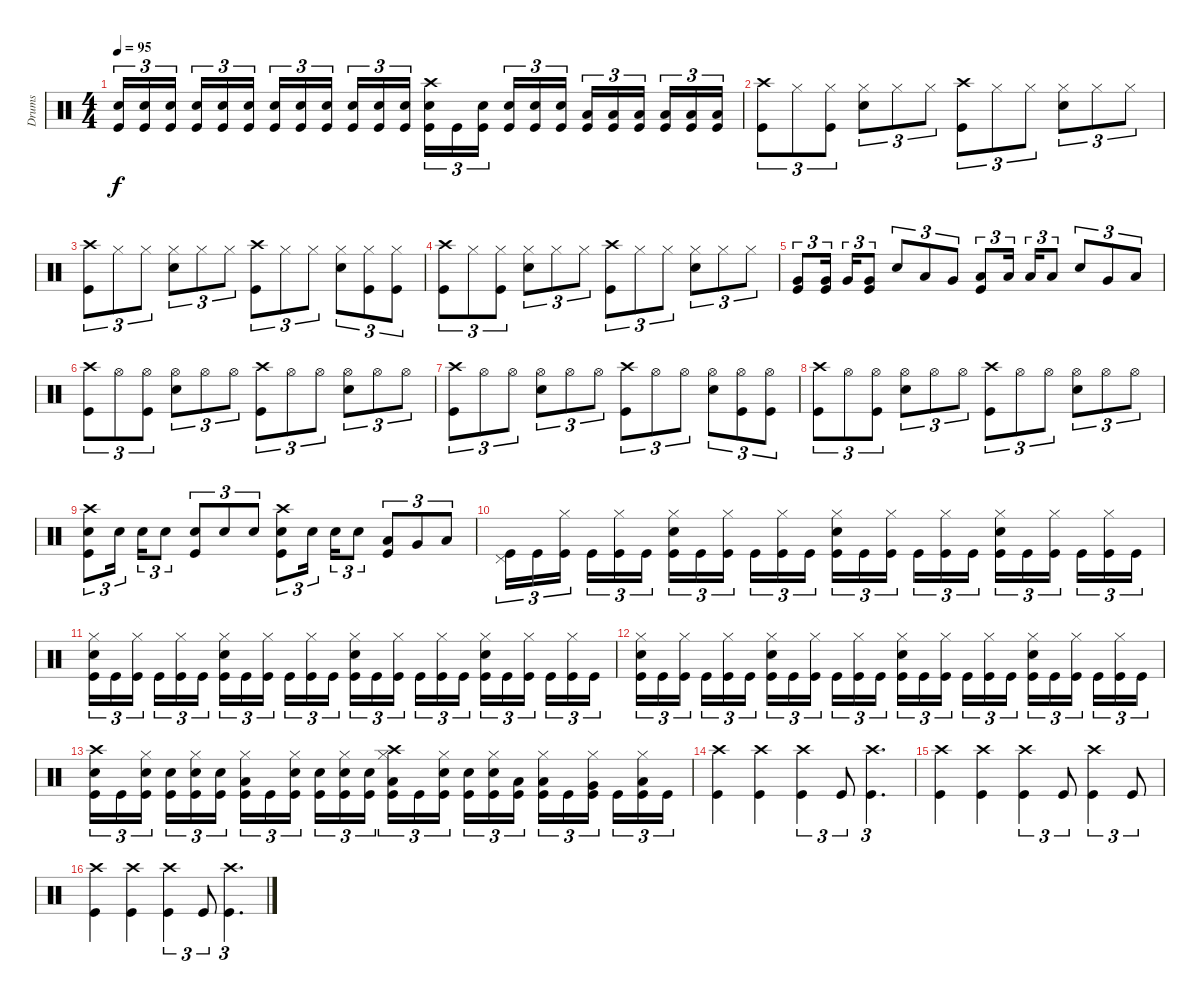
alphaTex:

\track ("Drums" "Drums") {instrument percussion}
\staff {score}
\articulation defaults
\ts (4 4)
\tempo 95
\clef neutral
\ks c
("Electric Snare (hit)" "Kick (hit)").16{tu (3 2) dy f} ("Electric Snare (hit)" "Kick (hit)").16{tu (3 2)} ("Electric Snare (hit)" "Kick (hit)").16{tu (3 2)} ("Electric Snare (hit)" "Kick (hit)").16{tu (3 2)} ("Electric Snare (hit)" "Kick (hit)").16{tu (3 2)} ("Electric Snare (hit)" "Kick (hit)").16{tu (3 2)} ("Electric Snare (hit)" "Kick (hit)").16{tu (3 2)} ("Electric Snare (hit)" "Kick (hit)").16{tu (3 2)} ("Electric Snare (hit)" "Kick (hit)").16{tu (3 2)} ("Electric Snare (hit)" "Kick (hit)").16{tu (3 2)} ("Electric Snare (hit)" "Kick (hit)").16{tu (3 2)} ("Electric Snare (hit)" "Kick (hit)").16{tu (3 2)} ("Crash high (hit)" "Electric Snare (hit)" "Kick (hit)").16{tu (3 2)} "Kick (hit)".16{tu (3 2)} ("Electric Snare (hit)" "Kick (hit)").16{tu (3 2)} ("Electric Snare (hit)" "Kick (hit)").16{tu (3 2)} ("Electric Snare (hit)" "Kick (hit)").16{tu (3 2)} ("Electric Snare (hit)" "Kick (hit)").16{tu (3 2)} ("Low Tom (hit)" "Kick (hit)").16{tu (3 2)} ("Low Tom (hit)" "Kick (hit)").16{tu (3 2)} ("Low Tom (hit)" "Kick (hit)").16{tu (3 2)} ("Low Tom (hit)" "Kick (hit)").16{tu (3 2)} ("Low Floor Tom (hit)" "Kick (hit)").16{tu (3 2)} ("Low Floor Tom (hit)" "Kick (hit)").16{tu (3 2)} |
("Crash high (hit)" "Kick (hit)").8{tu (3 2)} "Hi-Hat (closed)".8{tu (3 2)} ("Hi-Hat (closed)" "Kick (hit)").8{tu (3 2)} ("Hi-Hat (closed)" "Electric Snare (hit)").8{tu (3 2)} "Hi-Hat (closed)".8{tu (3 2)} "Hi-Hat (closed)".8{tu (3 2)} ("Crash high (hit)" "Kick (hit)").8{tu (3 2)} "Hi-Hat (closed)".8{tu (3 2)} "Hi-Hat (closed)".8{tu (3 2)} ("Hi-Hat (closed)" "Electric Snare (hit)").8{tu (3 2)} "Hi-Hat (closed)".8{tu (3 2)} "Hi-Hat (closed)".8{tu (3 2)} |
("Crash high (hit)" "Kick (hit)").8{tu (3 2)} "Hi-Hat (closed)".8{tu (3 2)} "Hi-Hat (closed)".8{tu (3 2)} ("Hi-Hat (closed)" "Electric Snare (hit)").8{tu (3 2)} "Hi-Hat (closed)".8{tu (3 2)} "Hi-Hat (closed)".8{tu (3 2)} ("Crash high (hit)" "Kick (hit)").8{tu (3 2)} "Hi-Hat (closed)".8{tu (3 2)} "Hi-Hat (closed)".8{tu (3 2)} ("Hi-Hat (closed)" "Electric Snare (hit)").8{tu (3 2)} ("Hi-Hat (closed)" "Kick (hit)").8{tu (3 2)} ("Hi-Hat (closed)" "Kick (hit)").8{tu (3 2)} |
("Crash high (hit)" "Kick (hit)").8{tu (3 2)} "Hi-Hat (closed)".8{tu (3 2)} ("Hi-Hat (closed)" "Kick (hit)").8{tu (3 2)} ("Hi-Hat (closed)" "Electric Snare (hit)").8{tu (3 2)} "Hi-Hat (closed)".8{tu (3 2)} "Hi-Hat (closed)".8{tu (3 2)} ("Crash high (hit)" "Kick (hit)").8{tu (3 2)} "Hi-Hat (closed)".8{tu (3 2)} "Hi-Hat (closed)".8{tu (3 2)} ("Hi-Hat (closed)" "Electric Snare (hit)").8{tu (3 2)} "Hi-Hat (closed)".8{tu (3 2)} "Hi-Hat (closed)".8{tu (3 2)} |
("Very Low Tom (hit)" "Kick (hit)").8{tu (3 2)} ("Very Low Tom (hit)" "Kick (hit)").16{tu (3 2)} "Very Low Tom (hit)".16{tu (3 2)} ("Very Low Tom (hit)" "Kick (hit)").8{tu (3 2)} "Electric Snare (hit)".8{tu (3 2)} "Low Floor Tom (hit)".8{tu (3 2)} "Very Low Tom (hit)".8{tu (3 2)} ("Low Floor Tom (hit)" "Kick (hit)").8{tu (3 2)} "Low Floor Tom (hit)".16{tu (3 2)} "Low Floor Tom (hit)".16{tu (3 2)} "Low Floor Tom (hit)".8{tu (3 2)} "Electric Snare (hit)".8{tu (3 2)} "Very Low Tom (hit)".8{tu (3 2)} "Low Floor Tom (hit)".8{tu (3 2)} |
("Crash high (hit)" "Kick (hit)").8{tu (3 2)} "Hi-Hat (open)".8{tu (3 2)} ("Hi-Hat (open)" "Kick (hit)").8{tu (3 2)} ("Hi-Hat (open)" "Electric Snare (hit)").8{tu (3 2)} "Hi-Hat (open)".8{tu (3 2)} "Hi-Hat (open)".8{tu (3 2)} ("Crash high (hit)" "Kick (hit)").8{tu (3 2)} "Hi-Hat (open)".8{tu (3 2)} "Hi-Hat (open)".8{tu (3 2)} ("Hi-Hat (open)" "Electric Snare (hit)").8{tu (3 2)} "Hi-Hat (open)".8{tu (3 2)} "Hi-Hat (open)".8{tu (3 2)} |
("Crash high (hit)" "Kick (hit)").8{tu (3 2)} "Hi-Hat (open)".8{tu (3 2)} "Hi-Hat (open)".8{tu (3 2)} ("Hi-Hat (open)" "Electric Snare (hit)").8{tu (3 2)} "Hi-Hat (open)".8{tu (3 2)} "Hi-Hat (open)".8{tu (3 2)} ("Crash high (hit)" "Kick (hit)").8{tu (3 2)} "Hi-Hat (open)".8{tu (3 2)} "Hi-Hat (open)".8{tu (3 2)} ("Hi-Hat (open)" "Electric Snare (hit)").8{tu (3 2)} ("Hi-Hat (open)" "Kick (hit)").8{tu (3 2)} ("Hi-Hat (open)" "Kick (hit)").8{tu (3 2)} |
("Crash high (hit)" "Kick (hit)").8{tu (3 2)} "Hi-Hat (open)".8{tu (3 2)} ("Hi-Hat (open)" "Kick (hit)").8{tu (3 2)} ("Hi-Hat (open)" "Electric Snare (hit)").8{tu (3 2)} "Hi-Hat (open)".8{tu (3 2)} "Hi-Hat (open)".8{tu (3 2)} ("Crash high (hit)" "Kick (hit)").8{tu (3 2)} "Hi-Hat (open)".8{tu (3 2)} "Hi-Hat (open)".8{tu (3 2)} ("Hi-Hat (open)" "Electric Snare (hit)").8{tu (3 2)} "Hi-Hat (open)".8{tu (3 2)} "Hi-Hat (open)".8{tu (3 2)} |
("Crash high (hit)" "Electric Snare (hit)" "Kick (hit)").8{tu (3 2)} "Electric Snare (hit)".16{tu (3 2)} "Electric Snare (hit)".16{tu (3 2)} "Electric Snare (hit)".8{tu (3 2)} ("Electric Snare (hit)" "Kick (hit)").8{tu (3 2)} "Electric Snare (hit)".8{tu (3 2)} "Electric Snare (hit)".8{tu (3 2)} ("Crash high (hit)" "Electric Snare (hit)" "Kick (hit)").8{tu (3 2)} "Electric Snare (hit)".16{tu (3 2)} "Electric Snare (hit)".16{tu (3 2)} "Electric Snare (hit)".8{tu (3 2)} ("Low Tom (hit)" "Kick (hit)").8{tu (3 2)} "Very Low Tom (hit)".8{tu (3 2)} "Low Floor Tom (hit)".8{tu (3 2)} |
("Pedal Hi-Hat (hit)" "Kick (hit)").16{tu (3 2)} "Kick (hit)".16{tu (3 2)} ("Hi-Hat (closed)" "Kick (hit)").16{tu (3 2)} "Kick (hit)".16{tu (3 2)} ("Hi-Hat (closed)" "Kick (hit)").16{tu (3 2)} "Kick (hit)".16{tu (3 2)} ("Hi-Hat (closed)" "Electric Snare (hit)" "Kick (hit)").16{tu (3 2)} "Kick (hit)".16{tu (3 2)} ("Hi-Hat (closed)" "Kick (hit)").16{tu (3 2)} "Kick (hit)".16{tu (3 2)} ("Hi-Hat (closed)" "Kick (hit)").16{tu (3 2)} "Kick (hit)".16{tu (3 2)} ("Hi-Hat (closed)" "Electric Snare (hit)" "Kick (hit)").16{tu (3 2)} "Kick (hit)".16{tu (3 2)} ("Hi-Hat (closed)" "Kick (hit)").16{tu (3 2)} "Kick (hit)".16{tu (3 2)} ("Hi-Hat (closed)" "Kick (hit)").16{tu (3 2)} "Kick (hit)".16{tu (3 2)} ("Hi-Hat (closed)" "Electric Snare (hit)" "Kick (hit)").16{tu (3 2)} "Kick (hit)".16{tu (3 2)} ("Hi-Hat (closed)" "Kick (hit)").16{tu (3 2)} "Kick (hit)".16{tu (3 2)} ("Hi-Hat (closed)" "Kick (hit)").16{tu (3 2)} "Kick (hit)".16{tu (3 2)} |
("Hi-Hat (closed)" "Electric Snare (hit)" "Kick (hit)").16{tu (3 2)} "Kick (hit)".16{tu (3 2)} ("Hi-Hat (closed)" "Kick (hit)").16{tu (3 2)} "Kick (hit)".16{tu (3 2)} ("Hi-Hat (closed)" "Kick (hit)").16{tu (3 2)} "Kick (hit)".16{tu (3 2)} ("Hi-Hat (closed)" "Electric Snare (hit)" "Kick (hit)").16{tu (3 2)} "Kick (hit)".16{tu (3 2)} ("Hi-Hat (closed)" "Kick (hit)").16{tu (3 2)} "Kick (hit)".16{tu (3 2)} ("Hi-Hat (closed)" "Kick (hit)").16{tu (3 2)} "Kick (hit)".16{tu (3 2)} ("Hi-Hat (closed)" "Electric Snare (hit)" "Kick (hit)").16{tu (3 2)} "Kick (hit)".16{tu (3 2)} ("Hi-Hat (closed)" "Kick (hit)").16{tu (3 2)} "Kick (hit)".16{tu (3 2)} ("Hi-Hat (closed)" "Kick (hit)").16{tu (3 2)} "Kick (hit)".16{tu (3 2)} ("Hi-Hat (closed)" "Electric Snare (hit)" "Kick (hit)").16{tu (3 2)} "Kick (hit)".16{tu (3 2)} ("Hi-Hat (closed)" "Kick (hit)").16{tu (3 2)} "Kick (hit)".16{tu (3 2)} ("Hi-Hat (closed)" "Kick (hit)").16{tu (3 2)} "Kick (hit)".16{tu (3 2)} |
("Hi-Hat (closed)" "Electric Snare (hit)" "Kick (hit)").16{tu (3 2)} "Kick (hit)".16{tu (3 2)} ("Hi-Hat (closed)" "Kick (hit)").16{tu (3 2)} "Kick (hit)".16{tu (3 2)} ("Hi-Hat (closed)" "Kick (hit)").16{tu (3 2)} "Kick (hit)".16{tu (3 2)} ("Hi-Hat (closed)" "Electric Snare (hit)" "Kick (hit)").16{tu (3 2)} "Kick (hit)".16{tu (3 2)} ("Hi-Hat (closed)" "Kick (hit)").16{tu (3 2)} "Kick (hit)".16{tu (3 2)} ("Hi-Hat (closed)" "Kick (hit)").16{tu (3 2)} "Kick (hit)".16{tu (3 2)} ("Hi-Hat (closed)" "Electric Snare (hit)" "Kick (hit)").16{tu (3 2)} "Kick (hit)".16{tu (3 2)} ("Hi-Hat (closed)" "Kick (hit)").16{tu (3 2)} "Kick (hit)".16{tu (3 2)} ("Hi-Hat (closed)" "Kick (hit)").16{tu (3 2)} "Kick (hit)".16{tu (3 2)} ("Hi-Hat (closed)" "Electric Snare (hit)" "Kick (hit)").16{tu (3 2)} "Kick (hit)".16{tu (3 2)} ("Hi-Hat (closed)" "Kick (hit)").16{tu (3 2)} "Kick (hit)".16{tu (3 2)} ("Hi-Hat (closed)" "Kick (hit)").16{tu (3 2)} "Kick (hit)".16{tu (3 2)} |
("Crash high (hit)" "Electric Snare (hit)" "Kick (hit)").16{tu (3 2)} "Kick (hit)".16{tu (3 2)} ("Hi-Hat (closed)" "Electric Snare (hit)" "Kick (hit)").16{tu (3 2)} ("Electric Snare (hit)" "Kick (hit)").16{tu (3 2)} ("Hi-Hat (closed)" "Electric Snare (hit)" "Kick (hit)").16{tu (3 2)} ("Electric Snare (hit)" "Kick (hit)").16{tu (3 2)} ("Hi-Hat (closed)" "Low Floor Tom (hit)" "Kick (hit)").16{tu (3 2)} "Kick (hit)".16{tu (3 2)} ("Hi-Hat (closed)" "Electric Snare (hit)" "Kick (hit)").16{tu (3 2)} ("Electric Snare (hit)" "Kick (hit)").16{tu (3 2)} ("Hi-Hat (closed)" "Electric Snare (hit)" "Kick (hit)").16{tu (3 2)} ("Electric Snare (hit)" "Kick (hit)").16{tu (3 2)} ("Crash high (hit)" "Hi-Hat (closed)" "Low Floor Tom (hit)" "Kick (hit)").16{tu (3 2)} "Kick (hit)".16{tu (3 2)} ("Hi-Hat (closed)" "Electric Snare (hit)" "Kick (hit)").16{tu (3 2)} ("Electric Snare (hit)" "Kick (hit)").16{tu (3 2)} ("Hi-Hat (closed)" "Electric Snare (hit)" "Kick (hit)").16{tu (3 2)} ("Low Floor Tom (hit)" "Kick (hit)").16{tu (3 2)} ("Hi-Hat (closed)" "Low Tom (hit)" "Kick (hit)").16{tu (3 2)} "Kick (hit)".16{tu (3 2)} ("Hi-Hat (closed)" "Very Low Tom (hit)" "Kick (hit)").16{tu (3 2)} "Kick (hit)".16{tu (3 2)} ("Hi-Hat (closed)" "Low Floor Tom (hit)" "Kick (hit)").16{tu (3 2)} "Kick (hit)".16{tu (3 2)} |
("Crash high (hit)" "Kick (hit)").4 ("Crash high (hit)" "Kick (hit)").4 ("Crash high (hit)" "Kick (hit)").4{tu (3 2)} "Kick (hit)".8{tu (3 2)} ("Crash high (hit)" "Kick (hit)").4{d tu (3 2)} |
("Crash high (hit)" "Kick (hit)").4 ("Crash high (hit)" "Kick (hit)").4 ("Crash high (hit)" "Kick (hit)").4{tu (3 2)} "Kick (hit)".8{tu (3 2)} ("Crash high (hit)" "Kick (hit)").4{tu (3 2)} "Kick (hit)".8{tu (3 2)} |
("Crash high (hit)" "Kick (hit)").4 ("Crash high (hit)" "Kick (hit)").4 ("Crash high (hit)" "Kick (hit)").4{tu (3 2)} "Kick (hit)".8{tu (3 2)} ("Crash high (hit)" "Kick (hit)").4{d tu (3 2)}
